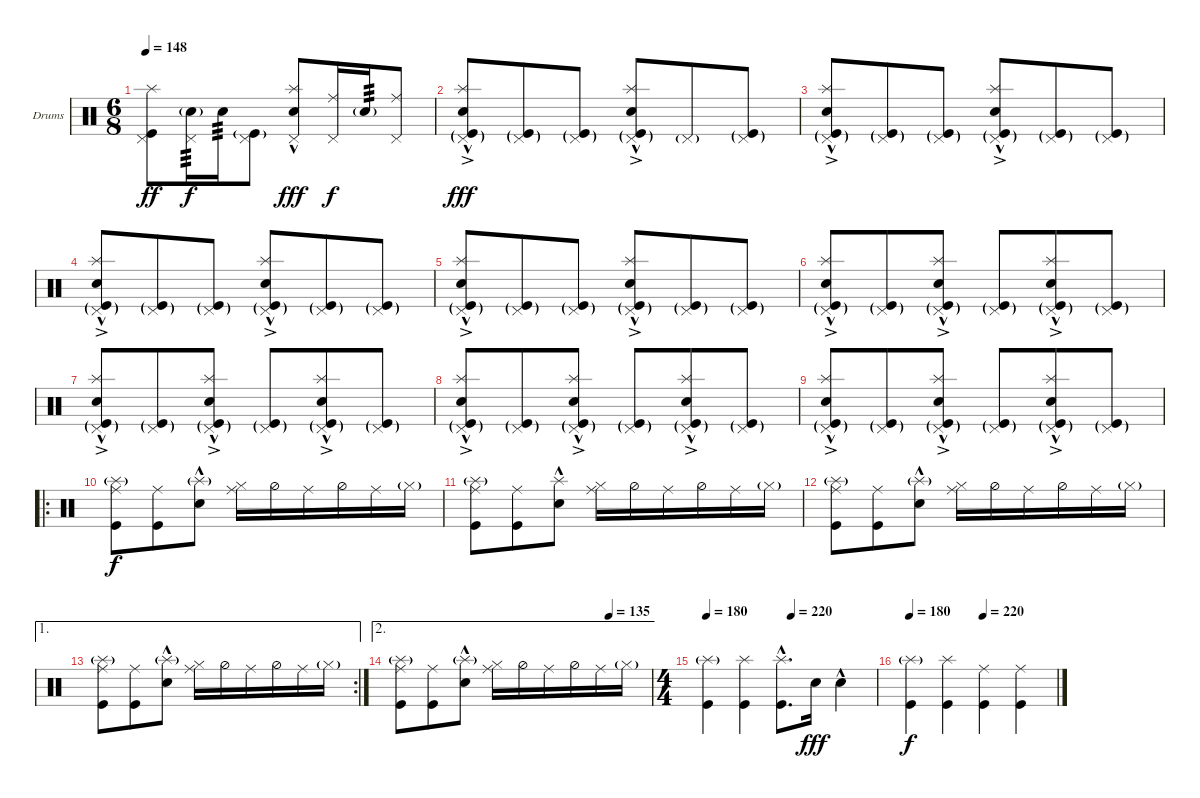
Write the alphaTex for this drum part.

\defaultSystemsLayout 4
\bracketExtendMode groupsimilarinstruments
\firstSystemTrackNameOrientation horizontal
\otherSystemsTrackNameOrientation horizontal
\track ("Drumkit" "Drums") {instrument percussion}
\staff {score}
\articulation defaults
\ts (6 8)
\tempo 148
\clef neutral
\scale
0.333333
\ks c
("Kick (hit)" "Pedal Hi-Hat (hit)" "Splash (hit)").8{dy ff} ("Snare (hit) 2"{g} "Pedal Hi-Hat (hit)").16{tp 3 dy f} "Snare (hit) 2".16{tp 3} ("Pedal Hi-Hat (hit)" "Kick (hit)"{g}).8 ("Splash (hit)" "Snare (hit) 2"{hac} "Pedal Hi-Hat (hit)").8{dy fff} ("Ride (middle)" "Pedal Hi-Hat (hit)").16{dy f} "Snare (hit) 2"{g}.16{tp 3} ("Pedal Hi-Hat (hit)" "Ride (middle)").8 |
\scale
0.333333 ("Pedal Hi-Hat (hit)"{g} "Kick (hit)"{g} "Snare (hit) 2"{hac} "Splash (hit)"{ac}).8{dy fff} ("Pedal Hi-Hat (hit)"{g} "Kick (hit)"{g}).8 ("Pedal Hi-Hat (hit)"{g} "Kick (hit)"{g}).8 ("Pedal Hi-Hat (hit)"{g} "Kick (hit)"{g} "Snare (hit) 2"{hac} "Splash (hit)"{ac}).8 "Pedal Hi-Hat (hit)"{g}.8 ("Pedal Hi-Hat (hit)"{g} "Kick (hit)"{g}).8 |
\scale
0.333333 ("Pedal Hi-Hat (hit)"{g} "Kick (hit)"{g} "Snare (hit) 2"{hac} "Splash (hit)"{ac}).8 ("Pedal Hi-Hat (hit)"{g} "Kick (hit)"{g}).8 ("Pedal Hi-Hat (hit)"{g} "Kick (hit)"{g}).8 ("Pedal Hi-Hat (hit)"{g} "Kick (hit)"{g} "Snare (hit) 2"{hac} "Splash (hit)"{ac}).8 ("Pedal Hi-Hat (hit)"{g} "Kick (hit)"{g}).8 ("Pedal Hi-Hat (hit)"{g} "Kick (hit)"{g}).8 |
\scale
0.333333 ("Pedal Hi-Hat (hit)"{g} "Kick (hit)"{g} "Snare (hit) 2"{hac} "Splash (hit)"{ac}).8 ("Pedal Hi-Hat (hit)"{g} "Kick (hit)"{g}).8 ("Pedal Hi-Hat (hit)"{g} "Kick (hit)"{g}).8 ("Pedal Hi-Hat (hit)"{g} "Kick (hit)"{g} "Snare (hit) 2"{hac} "Splash (hit)"{ac}).8 ("Pedal Hi-Hat (hit)"{g} "Kick (hit)"{g}).8 ("Pedal Hi-Hat (hit)"{g} "Kick (hit)"{g}).8 |
\scale
0.333333 ("Pedal Hi-Hat (hit)"{g} "Kick (hit)"{g} "Snare (hit) 2"{hac} "Splash (hit)"{ac}).8 ("Pedal Hi-Hat (hit)"{g} "Kick (hit)"{g}).8 ("Pedal Hi-Hat (hit)"{g} "Kick (hit)"{g}).8 ("Pedal Hi-Hat (hit)"{g} "Kick (hit)"{g} "Snare (hit) 2"{hac} "Splash (hit)"{ac}).8 ("Pedal Hi-Hat (hit)"{g} "Kick (hit)"{g}).8 ("Pedal Hi-Hat (hit)"{g} "Kick (hit)"{g}).8 |
\scale
0.333333 ("Pedal Hi-Hat (hit)"{g} "Kick (hit)"{g} "Snare (hit) 2"{hac} "Splash (hit)"{ac}).8 ("Pedal Hi-Hat (hit)"{g} "Kick (hit)"{g}).8 ("Pedal Hi-Hat (hit)"{g} "Kick (hit)"{g} "Snare (hit) 2"{hac} "Splash (hit)"{ac}).8 ("Pedal Hi-Hat (hit)"{g} "Kick (hit)"{g}).8 ("Pedal Hi-Hat (hit)"{g} "Kick (hit)"{g} "Snare (hit) 2"{hac} "Splash (hit)"{ac}).8 ("Pedal Hi-Hat (hit)"{g} "Kick (hit)"{g}).8 |
\scale
0.333333 ("Pedal Hi-Hat (hit)"{g} "Kick (hit)"{g} "Snare (hit) 2"{hac} "Splash (hit)"{ac}).8 ("Pedal Hi-Hat (hit)"{g} "Kick (hit)"{g}).8 ("Pedal Hi-Hat (hit)"{g} "Kick (hit)"{g} "Snare (hit) 2"{hac} "Splash (hit)"{ac}).8 ("Pedal Hi-Hat (hit)"{g} "Kick (hit)"{g}).8 ("Pedal Hi-Hat (hit)"{g} "Kick (hit)"{g} "Snare (hit) 2"{hac} "Splash (hit)"{ac}).8 ("Pedal Hi-Hat (hit)"{g} "Kick (hit)"{g}).8 |
\scale
0.333333 ("Pedal Hi-Hat (hit)"{g} "Kick (hit)"{g} "Snare (hit) 2"{hac} "Splash (hit)"{ac}).8 ("Pedal Hi-Hat (hit)"{g} "Kick (hit)"{g}).8 ("Pedal Hi-Hat (hit)"{g} "Kick (hit)"{g} "Snare (hit) 2"{hac} "Splash (hit)"{ac}).8 ("Pedal Hi-Hat (hit)"{g} "Kick (hit)"{g}).8 ("Pedal Hi-Hat (hit)"{g} "Kick (hit)"{g} "Snare (hit) 2"{hac} "Splash (hit)"{ac}).8 ("Pedal Hi-Hat (hit)"{g} "Kick (hit)"{g}).8 |
\scale
0.311111 ("Pedal Hi-Hat (hit)"{g} "Kick (hit)"{g} "Snare (hit) 2"{hac} "Splash (hit)"{ac}).8 ("Pedal Hi-Hat (hit)"{g} "Kick (hit)"{g}).8 ("Pedal Hi-Hat (hit)"{g} "Kick (hit)"{g} "Snare (hit) 2"{hac} "Splash (hit)"{ac}).8 ("Pedal Hi-Hat (hit)"{g} "Kick (hit)"{g}).8 ("Pedal Hi-Hat (hit)"{g} "Kick (hit)"{g} "Snare (hit) 2"{hac} "Splash (hit)"{ac}).8 ("Pedal Hi-Hat (hit)"{g} "Kick (hit)"{g}).8 |
\ro
\scale
0.377778 ("Kick (hit)" "Splash (hit)"{g} "Ride (middle)").8{dy f} ("Kick (hit)" "Ride (middle)").8 ("Snare (hit) 2"{hac} "Splash (hit)"{g}).8 ("Hi-Hat (closed)" "Ride (middle)").16 "Hi-Hat (half)".16 "Ride (middle)".16 "Hi-Hat (half)".16 "Ride (middle)".16 "Hi-Hat (closed)"{g}.16 |
\scale
0.311111 ("Kick (hit)" "Splash (hit)"{g} "Ride (middle)").8 ("Kick (hit)" "Ride (middle)").8 ("Snare (hit) 2"{hac} "Splash (hit)").8 ("Hi-Hat (closed)" "Ride (middle)").16 "Hi-Hat (half)".16 "Ride (middle)".16 "Hi-Hat (half)".16 "Ride (middle)".16 "Hi-Hat (closed)"{g}.16 |
\scale
0.321839 ("Kick (hit)" "Splash (hit)"{g} "Ride (middle)").8 ("Kick (hit)" "Ride (middle)").8 ("Snare (hit) 2"{hac} "Splash (hit)"{g}).8 ("Hi-Hat (closed)" "Ride (middle)").16 "Hi-Hat (half)".16 "Ride (middle)".16 "Hi-Hat (half)".16 "Ride (middle)".16 "Hi-Hat (closed)"{g}.16 |
\ae 1
\rc 2
\scale
0.356322 ("Kick (hit)" "Splash (hit)"{g} "Ride (middle)").8 ("Kick (hit)" "Ride (middle)").8 ("Snare (hit) 2"{hac} "Splash (hit)"{g}).8 ("Hi-Hat (closed)" "Ride (middle)").16 "Hi-Hat (half)".16 "Ride (middle)".16 "Hi-Hat (half)".16 "Ride (middle)".16 "Hi-Hat (closed)"{g}.16 |
\ae 2
\tempo (135 0.833333)
\scale
0.321839 ("Kick (hit)" "Splash (hit)"{g} "Ride (middle)").8 ("Kick (hit)" "Ride (middle)").8 ("Snare (hit) 2"{hac} "Splash (hit)"{g}).8 ("Hi-Hat (closed)" "Ride (middle)").16 "Hi-Hat (half)".16 "Ride (middle)".16 "Hi-Hat (half)".16 "Ride (middle)".16 "Hi-Hat (closed)"{g}.16 |
\ts (4 4)
\tempo 180
\tempo (220 0.5)
\scale
0.474178 ("Kick (hit)" "Splash (hit)"{g}).4 ("Kick (hit)" "Splash (hit)").4 ("Splash (hit)"{hac} "Kick (hit)").8{d} "Snare (hit) 2".16{dy fff} "Snare (hit) 2"{hac}.4 |
\tempo 180
\tempo (220 0.5)
\scale
0.262911 ("Kick (hit)" "Splash (hit)"{g}).4{dy f} ("Kick (hit)" "Splash (hit)").4 ("Kick (hit)" "Ride (middle)").4 ("Kick (hit)" "Ride (middle)").4
